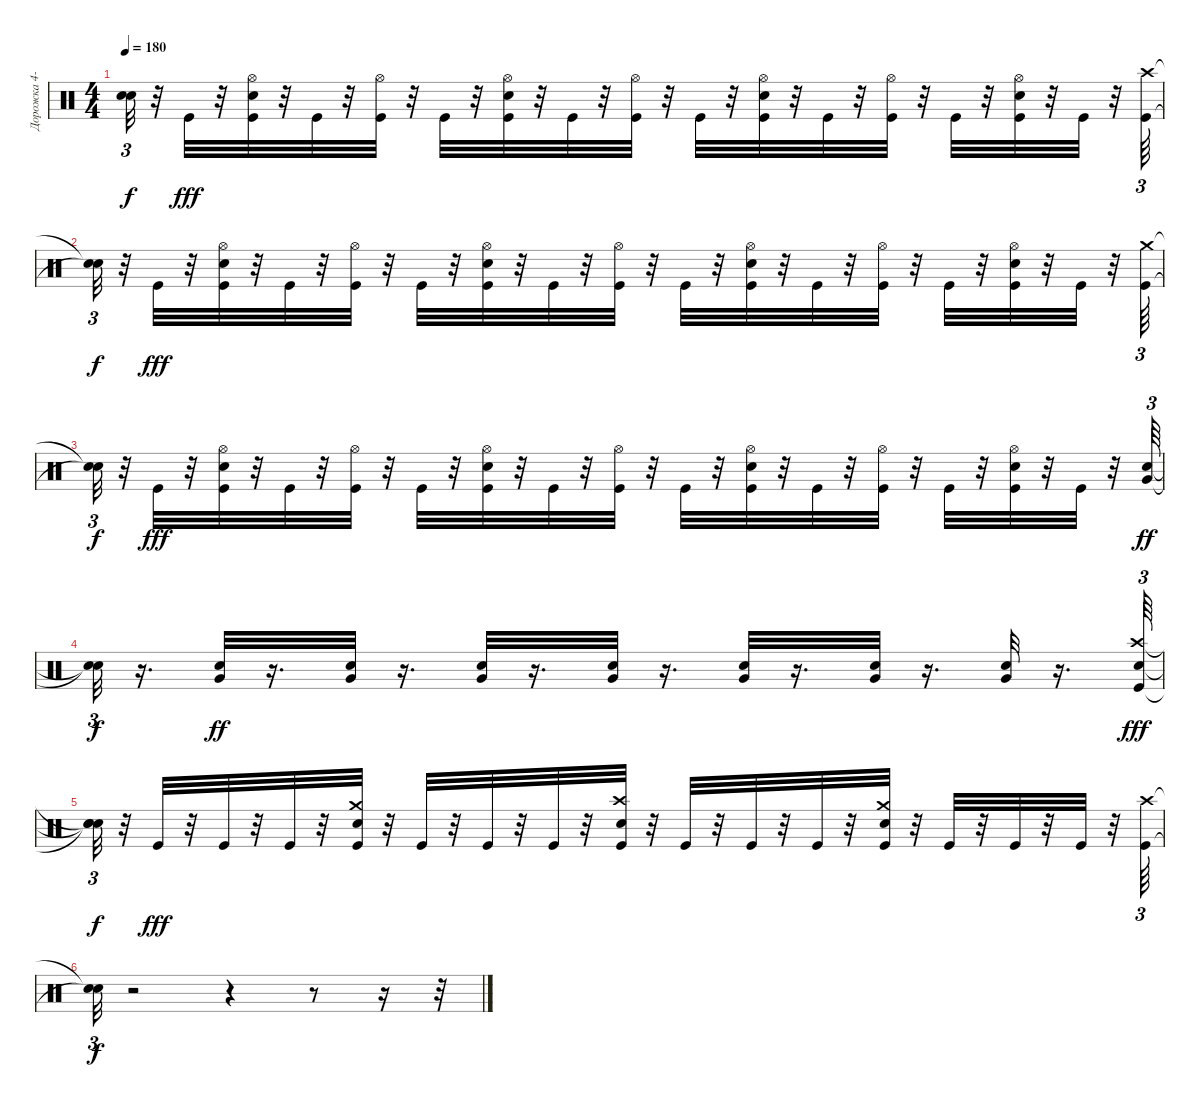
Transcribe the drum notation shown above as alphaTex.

\track ("Дорожка 4-10-11" "Дорожка 4-") {instrument percussion}
\staff {score}
\articulation defaults
\ts (4 4)
\tempo 180
\clef neutral
\ks c
("Snare (hit)"{t} "Snare (hit)"{t}).32{tu (3 2) dy f} r.32 "Kick (hit)".32{dy fff} r.32 ("Hi-Hat (open)" "Snare (hit) 2" "Kick (hit)").32 r.32 "Kick (hit)".32 r.32 ("Hi-Hat (open)" "Kick (hit)").32 r.32 "Kick (hit)".32 r.32 ("Snare (hit) 2" "Hi-Hat (open)" "Kick (hit)").32 r.32 "Kick (hit)".32 r.32 ("Hi-Hat (open)" "Kick (hit)").32 r.32 "Kick (hit)".32 r.32 ("Hi-Hat (open)" "Snare (hit) 2" "Kick (hit)").32 r.32 "Kick (hit)".32 r.32 ("Hi-Hat (open)" "Kick (hit)").32 r.32 "Kick (hit)".32 r.32 ("Hi-Hat (open)" "Snare (hit) 2" "Kick (hit)").32 r.32 "Kick (hit)".32 r.32 ("Crash high (hit)" "Kick (hit)").64{tu (3 2)} |
("Snare (hit)"{t} "Snare (hit)"{t}).32{tu (3 2) dy f} r.32 "Kick (hit)".32{dy fff} r.32 ("Hi-Hat (open)" "Snare (hit) 2" "Kick (hit)").32 r.32 "Kick (hit)".32 r.32 ("Hi-Hat (open)" "Kick (hit)").32 r.32 "Kick (hit)".32 r.32 ("Snare (hit) 2" "Hi-Hat (open)" "Kick (hit)").32 r.32 "Kick (hit)".32 r.32 ("Hi-Hat (open)" "Kick (hit)").32 r.32 "Kick (hit)".32 r.32 ("Hi-Hat (open)" "Snare (hit) 2" "Kick (hit)").32 r.32 "Kick (hit)".32 r.32 ("Hi-Hat (open)" "Kick (hit)").32 r.32 "Kick (hit)".32 r.32 ("Hi-Hat (open)" "Snare (hit) 2" "Kick (hit)").32 r.32 "Kick (hit)".32 r.32 ("Crash medium (hit)" "Kick (hit)").64{tu (3 2)} |
("Snare (hit)"{t} "Snare (hit)"{t}).32{tu (3 2) dy f} r.32 "Kick (hit)".32{dy fff} r.32 ("Hi-Hat (open)" "Snare (hit) 2" "Kick (hit)").32 r.32 "Kick (hit)".32 r.32 ("Hi-Hat (open)" "Kick (hit)").32 r.32 "Kick (hit)".32 r.32 ("Snare (hit) 2" "Hi-Hat (open)" "Kick (hit)").32 r.32 "Kick (hit)".32 r.32 ("Hi-Hat (open)" "Kick (hit)").32 r.32 "Kick (hit)".32 r.32 ("Hi-Hat (open)" "Snare (hit) 2" "Kick (hit)").32 r.32 "Kick (hit)".32 r.32 ("Hi-Hat (open)" "Kick (hit)").32 r.32 "Kick (hit)".32 r.32 ("Hi-Hat (open)" "Snare (hit) 2" "Kick (hit)").32 r.32 "Kick (hit)".32 r.32 ("Electric Snare (hit)" "Very Low Tom (hit)").64{tu (3 2) dy ff} |
("Snare (hit)"{t} "Snare (hit)"{t}).32{tu (3 2) dy f} r.16{d} ("Electric Snare (hit)" "Very Low Tom (hit)").32{dy ff} r.16{d} ("Electric Snare (hit)" "Very Low Tom (hit)").32 r.16{d} ("Electric Snare (hit)" "Very Low Tom (hit)").32 r.16{d} ("Electric Snare (hit)" "Very Low Tom (hit)").32 r.16{d} ("Electric Snare (hit)" "Very Low Tom (hit)").32 r.16{d} ("Electric Snare (hit)" "Very Low Tom (hit)").32 r.16{d} ("Electric Snare (hit)" "Very Low Tom (hit)").32 r.16{d} ("Electric Snare (hit)" "Crash high (hit)" "Kick (hit)").64{tu (3 2) dy fff} |
("Snare (hit)"{t} "Snare (hit)"{t} "Snare (hit)"{t}).32{tu (3 2) dy f} r.32 "Kick (hit)".32{dy fff} r.32 "Kick (hit)".32 r.32 "Kick (hit)".32 r.32 ("Electric Snare (hit)" "Crash medium (hit)" "Kick (hit)").32 r.32 "Kick (hit)".32 r.32 "Kick (hit)".32 r.32 "Kick (hit)".32 r.32 ("Electric Snare (hit)" "Crash high (hit)" "Kick (hit)").32 r.32 "Kick (hit)".32 r.32 "Kick (hit)".32 r.32 "Kick (hit)".32 r.32 ("Electric Snare (hit)" "Crash medium (hit)" "Kick (hit)").32 r.32 "Kick (hit)".32 r.32 "Kick (hit)".32 r.32 "Kick (hit)".32 r.32 ("Crash high (hit)" "Kick (hit)").64{tu (3 2)} |
("Snare (hit)"{t} "Snare (hit)"{t}).32{tu (3 2) dy f} r.2 r.4 r.8 r.16 r.32
